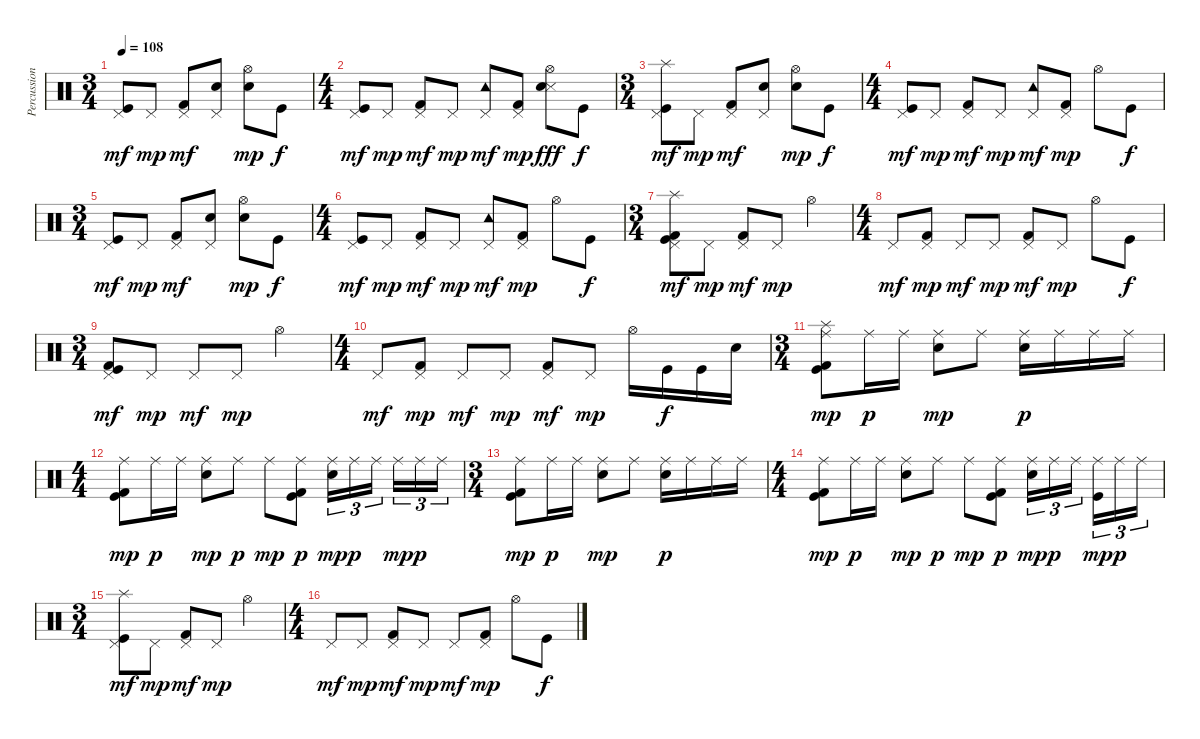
\track ("Percussion" "Percussion") {instrument percussion}
\staff {score}
\articulation defaults
\ts (3 4)
\tempo 108
\clef neutral
\ks c
("Pedal Hi-Hat (hit)" "Kick (hit)").8{dy mf} "Pedal Hi-Hat (hit)".8{dy mp} ("Pedal Hi-Hat (hit)" "Kick (hit) 2").8{dy mf} ("Pedal Hi-Hat (hit)" "Snare (hit) 2").8 ("Hi-Hat (open)" "Hand Clap (hit)").8{dy mp} "Kick (hit)".8{dy f} |
\ts (4 4)
("Pedal Hi-Hat (hit)" "Kick (hit)").8{dy mf} "Pedal Hi-Hat (hit)".8{dy mp} ("Pedal Hi-Hat (hit)" "Kick (hit) 2").8{dy mf} "Pedal Hi-Hat (hit)".8{dy mp} ("Pedal Hi-Hat (hit)" "Tambourine (hit)").8{dy mf} ("Pedal Hi-Hat (hit)" "Kick (hit) 2").8{dy mp} ("Hi-Hat (open)" "Snare (side stick) 3" "Hand Clap (hit)").8{dy fff} "Kick (hit)".8{dy f} |
\ts (3 4)
("Pedal Hi-Hat (hit)" "Splash (hit)" "Kick (hit)").8{dy mf} "Pedal Hi-Hat (hit)".8{dy mp} ("Pedal Hi-Hat (hit)" "Kick (hit) 2").8{dy mf} ("Pedal Hi-Hat (hit)" "Snare (hit) 2").8 ("Hi-Hat (open)" "Hand Clap (hit)").8{dy mp} "Kick (hit)".8{dy f} |
\ts (4 4)
("Pedal Hi-Hat (hit)" "Kick (hit)").8{dy mf} "Pedal Hi-Hat (hit)".8{dy mp} ("Pedal Hi-Hat (hit)" "Kick (hit) 2").8{dy mf} "Pedal Hi-Hat (hit)".8{dy mp} ("Pedal Hi-Hat (hit)" "Tambourine (hit)").8{dy mf} ("Pedal Hi-Hat (hit)" "Kick (hit) 2").8{dy mp} "Hi-Hat (open)".8 "Kick (hit)".8{dy f} |
\ts (3 4)
("Pedal Hi-Hat (hit)" "Kick (hit)").8{dy mf} "Pedal Hi-Hat (hit)".8{dy mp} ("Pedal Hi-Hat (hit)" "Kick (hit) 2").8{dy mf} ("Pedal Hi-Hat (hit)" "Snare (hit) 2").8 ("Hi-Hat (open)" "Hand Clap (hit)").8{dy mp} "Kick (hit)".8{dy f} |
\ts (4 4)
("Pedal Hi-Hat (hit)" "Kick (hit)").8{dy mf} "Pedal Hi-Hat (hit)".8{dy mp} ("Pedal Hi-Hat (hit)" "Kick (hit) 2").8{dy mf} "Pedal Hi-Hat (hit)".8{dy mp} ("Pedal Hi-Hat (hit)" "Tambourine (hit)").8{dy mf} ("Pedal Hi-Hat (hit)" "Kick (hit) 2").8{dy mp} "Hi-Hat (open)".8 "Kick (hit)".8{dy f} |
\ts (3 4)
("Pedal Hi-Hat (hit)" "Splash (hit)" "Kick (hit)" "Kick (hit) 2").8{dy mf} "Pedal Hi-Hat (hit)".8{dy mp} ("Pedal Hi-Hat (hit)" "Kick (hit) 2").8{dy mf} "Pedal Hi-Hat (hit)".8{dy mp} "Hi-Hat (open)".4 |
\ts (4 4)
"Pedal Hi-Hat (hit)".8{dy mf} ("Pedal Hi-Hat (hit)" "Kick (hit) 2").8{dy mp} "Pedal Hi-Hat (hit)".8{dy mf} "Pedal Hi-Hat (hit)".8{dy mp} ("Pedal Hi-Hat (hit)" "Kick (hit) 2").8{dy mf} "Pedal Hi-Hat (hit)".8{dy mp} "Hi-Hat (open)".8 "Kick (hit)".8{dy f} |
\ts (3 4)
("Pedal Hi-Hat (hit)" "Kick (hit)" "Kick (hit) 2").8{dy mf} "Pedal Hi-Hat (hit)".8{dy mp} "Pedal Hi-Hat (hit)".8{dy mf} "Pedal Hi-Hat (hit)".8{dy mp} "Hi-Hat (open)".4 |
\ts (4 4)
"Pedal Hi-Hat (hit)".8{dy mf} ("Pedal Hi-Hat (hit)" "Kick (hit) 2").8{dy mp} "Pedal Hi-Hat (hit)".8{dy mf} "Pedal Hi-Hat (hit)".8{dy mp} ("Pedal Hi-Hat (hit)" "Kick (hit) 2").8{dy mf} "Pedal Hi-Hat (hit)".8{dy mp} "Hi-Hat (open)".16 "Kick (hit)".16{dy f} "Kick (hit)".16 "Hand Clap (hit)".16 |
\ts (3 4)
("Ride (middle)" "Splash (hit)" "Kick (hit)" "Kick (hit) 2").8{dy mp} "Ride (middle)".16{dy p} "Ride (middle)".16 ("Ride (middle)" "Hand Clap (hit)").8{dy mp} "Ride (middle)".8 ("Ride (middle)" "Hand Clap (hit)").16{dy p} "Ride (middle)".16 "Ride (middle)".16 "Ride (middle)".16 |
\ts (4 4)
("Ride (middle)" "Kick (hit)" "Kick (hit) 2").8{dy mp} "Ride (middle)".16{dy p} "Ride (middle)".16 ("Ride (middle)" "Hand Clap (hit)").8{dy mp} "Ride (middle)".8{dy p} "Ride (middle)".8{dy mp} ("Ride (middle)" "Kick (hit) 2" "Kick (hit)").8{dy p} ("Ride (middle)" "Hand Clap (hit)").16{tu (3 2) dy mp} "Ride (middle)".16{tu (3 2) dy p} "Ride (middle)".16{tu (3 2)} "Ride (middle)".16{tu (3 2) dy mp} "Ride (middle)".16{tu (3 2) dy p} "Ride (middle)".16{tu (3 2)} |
\ts (3 4)
("Ride (middle)" "Kick (hit)" "Kick (hit) 2").8{dy mp} "Ride (middle)".16{dy p} "Ride (middle)".16 ("Ride (middle)" "Hand Clap (hit)").8{dy mp} "Ride (middle)".8 ("Ride (middle)" "Hand Clap (hit)").16{dy p} "Ride (middle)".16 "Ride (middle)".16 "Ride (middle)".16 |
\ts (4 4)
("Ride (middle)" "Kick (hit)" "Kick (hit) 2").8{dy mp} "Ride (middle)".16{dy p} "Ride (middle)".16 ("Ride (middle)" "Hand Clap (hit)").8{dy mp} "Ride (middle)".8{dy p} "Ride (middle)".8{dy mp} ("Ride (middle)" "Kick (hit) 2" "Kick (hit)").8{dy p} ("Ride (middle)" "Hand Clap (hit)").16{tu (3 2) dy mp} "Ride (middle)".16{tu (3 2) dy p} "Ride (middle)".16{tu (3 2)} ("Ride (middle)" "Kick (hit)").16{tu (3 2) dy mp} "Ride (middle)".16{tu (3 2) dy p} "Ride (middle)".16{tu (3 2)} |
\ts (3 4)
("Pedal Hi-Hat (hit)" "Splash (hit)" "Kick (hit)").8{dy mf} "Pedal Hi-Hat (hit)".8{dy mp} ("Pedal Hi-Hat (hit)" "Kick (hit) 2").8{dy mf} "Pedal Hi-Hat (hit)".8{dy mp} "Hi-Hat (open)".4 |
\ts (4 4)
"Pedal Hi-Hat (hit)".8{dy mf} "Pedal Hi-Hat (hit)".8{dy mp} ("Pedal Hi-Hat (hit)" "Kick (hit) 2").8{dy mf} "Pedal Hi-Hat (hit)".8{dy mp} "Pedal Hi-Hat (hit)".8{dy mf} ("Pedal Hi-Hat (hit)" "Kick (hit) 2").8{dy mp} "Hi-Hat (open)".8 "Kick (hit)".8{dy f}
